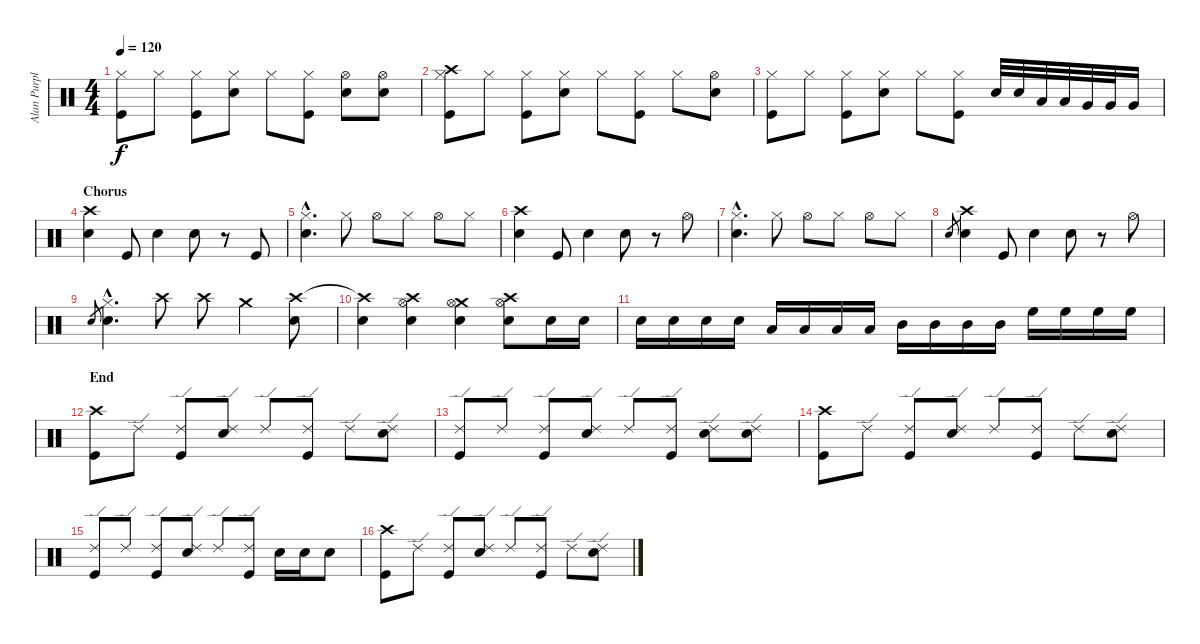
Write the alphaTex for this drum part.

\track ("Alan Purple" "Alan Purpl") {instrument percussion}
\staff {score}
\articulation defaults
\ts (4 4)
\tempo 120
\clef neutral
\ks c
("Hi-Hat (closed)" "Kick (hit)").8{dy f} "Hi-Hat (closed)".8 ("Hi-Hat (closed)" "Kick (hit)").8 ("Hi-Hat (closed)" "Snare (hit) 2").8 "Hi-Hat (closed)".8 ("Hi-Hat (closed)" "Kick (hit)").8 ("Hi-Hat (open)" "Electric Snare (hit)").8 ("Hi-Hat (open)" "Snare (hit) 2").8 |
("Crash high (hit)" "Hi-Hat (closed)" "Kick (hit)").8 "Hi-Hat (closed)".8 ("Hi-Hat (closed)" "Kick (hit)").8 ("Hi-Hat (closed)" "Snare (hit) 2").8 "Hi-Hat (closed)".8 ("Hi-Hat (closed)" "Kick (hit)").8 "Hi-Hat (closed)".8 ("Hi-Hat (open)" "Snare (hit) 2").8 |
("Hi-Hat (closed)" "Kick (hit)").8 "Hi-Hat (closed)".8 ("Hi-Hat (closed)" "Kick (hit)").8 ("Hi-Hat (closed)" "Snare (hit) 2").8 "Hi-Hat (closed)".8 ("Hi-Hat (closed)" "Kick (hit)").8 "Electric Snare (hit)".32 "Electric Snare (hit)".32 "Low Tom (hit)".32 "Low Tom (hit)".32 "Very Low Tom (hit)".32 "Very Low Tom (hit)".32 "Very Low Tom (hit)".16 |
\section ("" "Chorus")
("Crash high (hit)" "Snare (hit) 2").4 "Kick (hit)".8 "Snare (hit) 2".4 "Snare (hit) 2".8 r.8 "Kick (hit)".8 |
("Hi-Hat (closed)"{hac} "Snare (hit) 2"{hac}).4{d} "Hi-Hat (closed)".8 "Hi-Hat (open)".8 "Hi-Hat (closed)".8 "Hi-Hat (open)".8 "Hi-Hat (closed)".8 |
("Crash high (hit)" "Snare (hit) 2").4 "Kick (hit)".8 "Snare (hit) 2".4 "Snare (hit) 2".8 r.8 "Hi-Hat (open)".8 |
("Hi-Hat (closed)"{hac} "Snare (hit) 2"{hac}).4{d} "Hi-Hat (closed)".8 "Hi-Hat (open)".8 "Hi-Hat (closed)".8 "Hi-Hat (open)".8 "Hi-Hat (closed)".8 |
"Snare (hit) 2".8{gr} ("Crash high (hit)" "Snare (hit) 2").4 "Kick (hit)".8 "Snare (hit) 2".4 "Snare (hit) 2".8 r.8 "Hi-Hat (open)".8 |
"Snare (hit) 2".8{gr} ("Hi-Hat (closed)"{hac} "Snare (hit) 2"{hac}).4{d} "Crash high (hit)".8 "Crash high (hit)".8 "Crash medium (hit)".4 ("Crash high (hit)" "Snare (hit) 2").8 |
("Crash high (hit)"{t} "Electric Snare (hit)").4 ("Crash high (hit)" "Hi-Hat (open)" "Electric Snare (hit)").4 ("Crash medium (hit)" "Hi-Hat (open)" "Electric Snare (hit)").4 ("Crash high (hit)" "Hi-Hat (open)" "Electric Snare (hit)").8 "Electric Snare (hit)".16 "Electric Snare (hit)".16 |
"Electric Snare (hit)".16 "Electric Snare (hit)".16 "Electric Snare (hit)".16 "Electric Snare (hit)".16 "Low Tom (hit)".16 "Low Tom (hit)".16 "Low Tom (hit)".16 "Low Tom (hit)".16 "Mid Tom (hit)".16 "Mid Tom (hit)".16 "Mid Tom (hit)".16 "Mid Tom (hit)".16 "High Floor Tom (hit)".16 "High Floor Tom (hit)".16 "High Floor Tom (hit)".16 "High Floor Tom (hit)".16 |
\section ("" "End ")
("Crash high (hit)" "Kick (hit)").8 "Ride (edge) 2".8 ("Ride (edge) 2" "Kick (hit)").8 ("Ride (edge) 2" "Snare (hit) 2").8 "Ride (edge) 2".8 ("Ride (edge) 2" "Kick (hit)").8 "Ride (edge) 2".8 ("Ride (edge) 2" "Snare (hit) 2").8 |
("Ride (edge) 2" "Kick (hit)").8 "Ride (edge) 2".8 ("Ride (edge) 2" "Kick (hit)").8 ("Ride (edge) 2" "Snare (hit) 2").8 "Ride (edge) 2".8 ("Ride (edge) 2" "Kick (hit)").8 ("Ride (edge) 2" "Electric Snare (hit)").8 ("Ride (edge) 2" "Snare (hit) 2").8 |
("Crash high (hit)" "Kick (hit)").8 "Ride (edge) 2".8 ("Ride (edge) 2" "Kick (hit)").8 ("Ride (edge) 2" "Snare (hit) 2").8 "Ride (edge) 2".8 ("Ride (edge) 2" "Kick (hit)").8 "Ride (edge) 2".8 ("Ride (edge) 2" "Snare (hit) 2").8 |
("Ride (edge) 2" "Kick (hit)").8 "Ride (edge) 2".8 ("Ride (edge) 2" "Kick (hit)").8 ("Ride (edge) 2" "Snare (hit) 2").8 "Ride (edge) 2".8 ("Ride (edge) 2" "Kick (hit)").8 "Electric Snare (hit)".16 "Electric Snare (hit)".16 "Electric Snare (hit)".8 |
("Crash high (hit)" "Kick (hit)").8 "Ride (edge) 2".8 ("Ride (edge) 2" "Kick (hit)").8 ("Ride (edge) 2" "Snare (hit) 2").8 "Ride (edge) 2".8 ("Ride (edge) 2" "Kick (hit)").8 "Ride (edge) 2".8 ("Ride (edge) 2" "Snare (hit) 2").8
